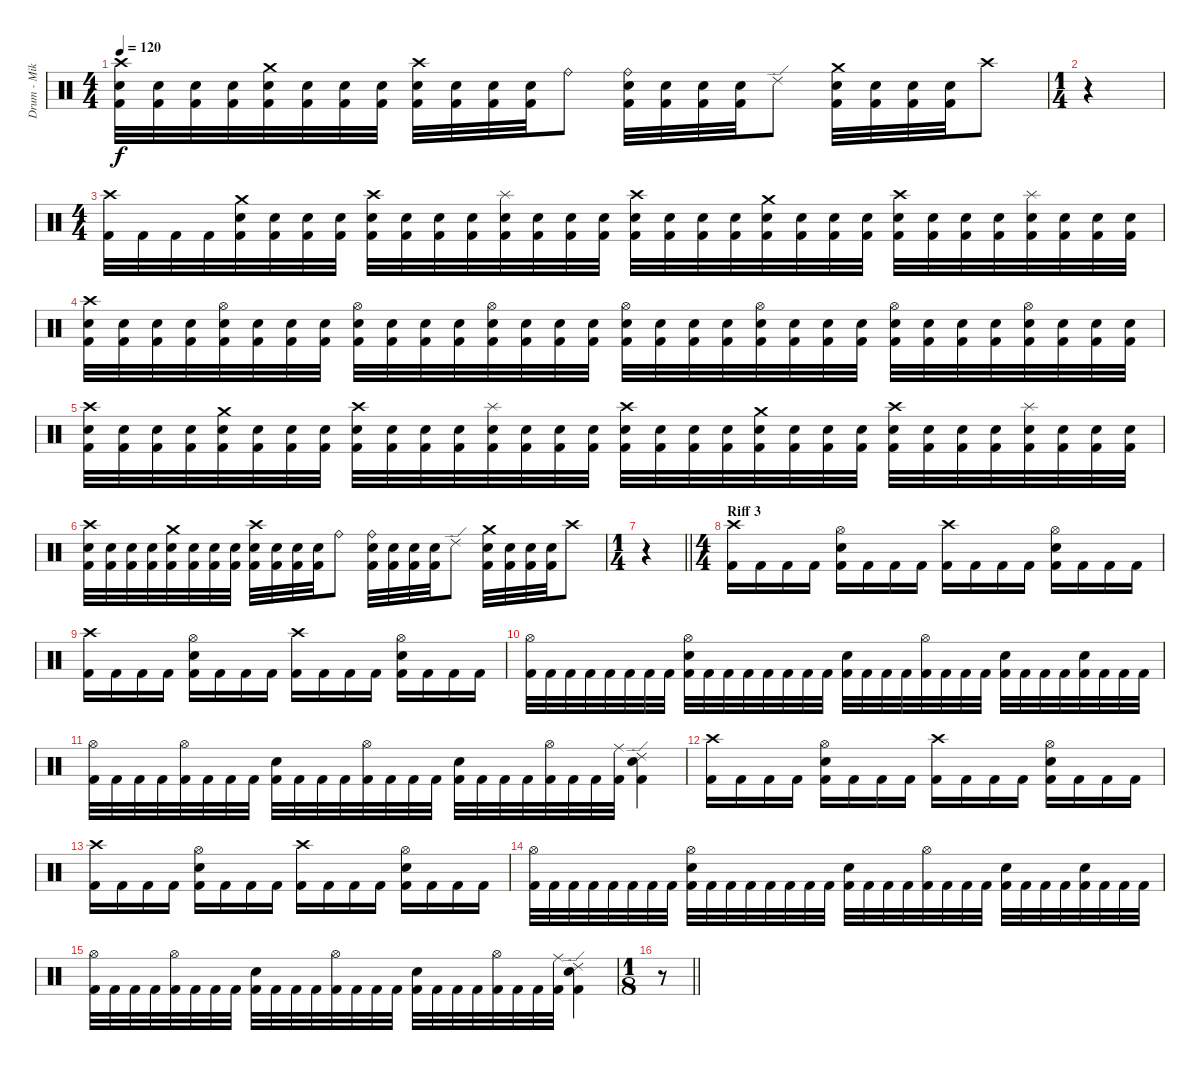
\track ("Drum - Mike Collins" "Drum - Mik") {instrument percussion}
\staff {score}
\articulation defaults
\ts (4 4)
\tempo 120
\clef neutral
\ks c
("Crash high (hit)" "Electric Snare (hit)" "Kick (hit) 2").32{dy f} ("Electric Snare (hit)" "Kick (hit) 2").32 ("Electric Snare (hit)" "Kick (hit) 2").32 ("Electric Snare (hit)" "Kick (hit) 2").32 ("Crash medium (hit)" "Electric Snare (hit)" "Kick (hit) 2").32 ("Electric Snare (hit)" "Kick (hit) 2").32 ("Electric Snare (hit)" "Kick (hit) 2").32 ("Electric Snare (hit)" "Kick (hit) 2").32 ("Crash high (hit)" "Electric Snare (hit)" "Kick (hit) 2").32 ("Electric Snare (hit)" "Kick (hit) 2").32 ("Electric Snare (hit)" "Kick (hit) 2").32 ("Electric Snare (hit)" "Kick (hit) 2").32 "Ride (bell)".8 ("Ride (bell)" "Electric Snare (hit)" "Kick (hit) 2").32 ("Electric Snare (hit)" "Kick (hit) 2").32 ("Electric Snare (hit)" "Kick (hit) 2").32 ("Electric Snare (hit)" "Kick (hit) 2").32 "Ride (edge) 2".8 ("Crash medium (hit)" "Electric Snare (hit)" "Kick (hit) 2").32 ("Electric Snare (hit)" "Kick (hit) 2").32 ("Electric Snare (hit)" "Kick (hit) 2").32 ("Electric Snare (hit)" "Kick (hit) 2").32 "Crash high (hit)".8 |
\ts (1 4)
r.4 |
\ts (4 4)
("Crash high (hit)" "Kick (hit) 2").32 "Kick (hit) 2".32 "Kick (hit) 2".32 "Kick (hit) 2".32 ("Crash medium (hit)" "Electric Snare (hit)" "Kick (hit) 2").32 ("Electric Snare (hit)" "Kick (hit) 2").32 ("Electric Snare (hit)" "Kick (hit) 2").32 ("Electric Snare (hit)" "Kick (hit) 2").32 ("Crash high (hit)" "Electric Snare (hit)" "Kick (hit) 2").32 ("Electric Snare (hit)" "Kick (hit) 2").32 ("Electric Snare (hit)" "Kick (hit) 2").32 ("Electric Snare (hit)" "Kick (hit) 2").32 ("Splash (hit)" "Electric Snare (hit)" "Kick (hit) 2").32 ("Electric Snare (hit)" "Kick (hit) 2").32 ("Electric Snare (hit)" "Kick (hit) 2").32 ("Electric Snare (hit)" "Kick (hit) 2").32 ("Crash high (hit)" "Electric Snare (hit)" "Kick (hit) 2").32 ("Electric Snare (hit)" "Kick (hit) 2").32 ("Electric Snare (hit)" "Kick (hit) 2").32 ("Electric Snare (hit)" "Kick (hit) 2").32 ("Crash medium (hit)" "Electric Snare (hit)" "Kick (hit) 2").32 ("Electric Snare (hit)" "Kick (hit) 2").32 ("Electric Snare (hit)" "Kick (hit) 2").32 ("Electric Snare (hit)" "Kick (hit) 2").32 ("Crash high (hit)" "Electric Snare (hit)" "Kick (hit) 2").32 ("Electric Snare (hit)" "Kick (hit) 2").32 ("Electric Snare (hit)" "Kick (hit) 2").32 ("Electric Snare (hit)" "Kick (hit) 2").32 ("Splash (hit)" "Electric Snare (hit)" "Kick (hit) 2").32 ("Electric Snare (hit)" "Kick (hit) 2").32 ("Electric Snare (hit)" "Kick (hit) 2").32 ("Electric Snare (hit)" "Kick (hit) 2").32 |
("Crash high (hit)" "Electric Snare (hit)" "Kick (hit) 2").32 ("Electric Snare (hit)" "Kick (hit) 2").32 ("Electric Snare (hit)" "Kick (hit) 2").32 ("Electric Snare (hit)" "Kick (hit) 2").32 ("Hi-Hat (open)" "Electric Snare (hit)" "Kick (hit) 2").32 ("Electric Snare (hit)" "Kick (hit) 2").32 ("Electric Snare (hit)" "Kick (hit) 2").32 ("Electric Snare (hit)" "Kick (hit) 2").32 ("Hi-Hat (open)" "Electric Snare (hit)" "Kick (hit) 2").32 ("Electric Snare (hit)" "Kick (hit) 2").32 ("Electric Snare (hit)" "Kick (hit) 2").32 ("Electric Snare (hit)" "Kick (hit) 2").32 ("Hi-Hat (open)" "Electric Snare (hit)" "Kick (hit) 2").32 ("Electric Snare (hit)" "Kick (hit) 2").32 ("Electric Snare (hit)" "Kick (hit) 2").32 ("Electric Snare (hit)" "Kick (hit) 2").32 ("Hi-Hat (open)" "Electric Snare (hit)" "Kick (hit) 2").32 ("Electric Snare (hit)" "Kick (hit) 2").32 ("Electric Snare (hit)" "Kick (hit) 2").32 ("Electric Snare (hit)" "Kick (hit) 2").32 ("Hi-Hat (open)" "Electric Snare (hit)" "Kick (hit) 2").32 ("Electric Snare (hit)" "Kick (hit) 2").32 ("Electric Snare (hit)" "Kick (hit) 2").32 ("Electric Snare (hit)" "Kick (hit) 2").32 ("Hi-Hat (open)" "Electric Snare (hit)" "Kick (hit) 2").32 ("Electric Snare (hit)" "Kick (hit) 2").32 ("Electric Snare (hit)" "Kick (hit) 2").32 ("Electric Snare (hit)" "Kick (hit) 2").32 ("Hi-Hat (open)" "Electric Snare (hit)" "Kick (hit) 2").32 ("Electric Snare (hit)" "Kick (hit) 2").32 ("Electric Snare (hit)" "Kick (hit) 2").32 ("Electric Snare (hit)" "Kick (hit) 2").32 |
("Crash high (hit)" "Electric Snare (hit)" "Kick (hit) 2").32 ("Electric Snare (hit)" "Kick (hit) 2").32 ("Electric Snare (hit)" "Kick (hit) 2").32 ("Electric Snare (hit)" "Kick (hit) 2").32 ("Crash medium (hit)" "Electric Snare (hit)" "Kick (hit) 2").32 ("Electric Snare (hit)" "Kick (hit) 2").32 ("Electric Snare (hit)" "Kick (hit) 2").32 ("Electric Snare (hit)" "Kick (hit) 2").32 ("Crash high (hit)" "Electric Snare (hit)" "Kick (hit) 2").32 ("Electric Snare (hit)" "Kick (hit) 2").32 ("Electric Snare (hit)" "Kick (hit) 2").32 ("Electric Snare (hit)" "Kick (hit) 2").32 ("Splash (hit)" "Electric Snare (hit)" "Kick (hit) 2").32 ("Electric Snare (hit)" "Kick (hit) 2").32 ("Electric Snare (hit)" "Kick (hit) 2").32 ("Electric Snare (hit)" "Kick (hit) 2").32 ("Crash high (hit)" "Electric Snare (hit)" "Kick (hit) 2").32 ("Electric Snare (hit)" "Kick (hit) 2").32 ("Electric Snare (hit)" "Kick (hit) 2").32 ("Electric Snare (hit)" "Kick (hit) 2").32 ("Crash medium (hit)" "Electric Snare (hit)" "Kick (hit) 2").32 ("Electric Snare (hit)" "Kick (hit) 2").32 ("Electric Snare (hit)" "Kick (hit) 2").32 ("Electric Snare (hit)" "Kick (hit) 2").32 ("Crash high (hit)" "Electric Snare (hit)" "Kick (hit) 2").32 ("Electric Snare (hit)" "Kick (hit) 2").32 ("Electric Snare (hit)" "Kick (hit) 2").32 ("Electric Snare (hit)" "Kick (hit) 2").32 ("Splash (hit)" "Electric Snare (hit)" "Kick (hit) 2").32 ("Electric Snare (hit)" "Kick (hit) 2").32 ("Electric Snare (hit)" "Kick (hit) 2").32 ("Electric Snare (hit)" "Kick (hit) 2").32 |
("Crash high (hit)" "Electric Snare (hit)" "Kick (hit) 2").32 ("Electric Snare (hit)" "Kick (hit) 2").32 ("Electric Snare (hit)" "Kick (hit) 2").32 ("Electric Snare (hit)" "Kick (hit) 2").32 ("Crash medium (hit)" "Electric Snare (hit)" "Kick (hit) 2").32 ("Electric Snare (hit)" "Kick (hit) 2").32 ("Electric Snare (hit)" "Kick (hit) 2").32 ("Electric Snare (hit)" "Kick (hit) 2").32 ("Crash high (hit)" "Electric Snare (hit)" "Kick (hit) 2").32 ("Electric Snare (hit)" "Kick (hit) 2").32 ("Electric Snare (hit)" "Kick (hit) 2").32 ("Electric Snare (hit)" "Kick (hit) 2").32 "Ride (bell)".8 ("Ride (bell)" "Electric Snare (hit)" "Kick (hit) 2").32 ("Electric Snare (hit)" "Kick (hit) 2").32 ("Electric Snare (hit)" "Kick (hit) 2").32 ("Electric Snare (hit)" "Kick (hit) 2").32 "Ride (edge) 2".8 ("Crash medium (hit)" "Electric Snare (hit)" "Kick (hit) 2").32 ("Electric Snare (hit)" "Kick (hit) 2").32 ("Electric Snare (hit)" "Kick (hit) 2").32 ("Electric Snare (hit)" "Kick (hit) 2").32 "Crash high (hit)".8 |
\ts (1 4)
\barLineRight lightlight
r.4 |
\ts (4 4)
\section ("" "Riff 3")
("Crash high (hit)" "Kick (hit) 2").16 "Kick (hit) 2".16 "Kick (hit) 2".16 "Kick (hit) 2".16 ("Hi-Hat (open)" "Electric Snare (hit)" "Kick (hit) 2").16 "Kick (hit) 2".16 "Kick (hit) 2".16 "Kick (hit) 2".16 ("Crash high (hit)" "Kick (hit) 2").16 "Kick (hit) 2".16 "Kick (hit) 2".16 "Kick (hit) 2".16 ("Hi-Hat (open)" "Electric Snare (hit)" "Kick (hit) 2").16 "Kick (hit) 2".16 "Kick (hit) 2".16 "Kick (hit) 2".16 |
("Crash high (hit)" "Kick (hit) 2").16 "Kick (hit) 2".16 "Kick (hit) 2".16 "Kick (hit) 2".16 ("Hi-Hat (open)" "Electric Snare (hit)" "Kick (hit) 2").16 "Kick (hit) 2".16 "Kick (hit) 2".16 "Kick (hit) 2".16 ("Crash high (hit)" "Kick (hit) 2").16 "Kick (hit) 2".16 "Kick (hit) 2".16 "Kick (hit) 2".16 ("Hi-Hat (open)" "Electric Snare (hit)" "Kick (hit) 2").16 "Kick (hit) 2".16 "Kick (hit) 2".16 "Kick (hit) 2".16 |
("Hi-Hat (open)" "Kick (hit) 2").32 "Kick (hit) 2".32 "Kick (hit) 2".32 "Kick (hit) 2".32 "Kick (hit) 2".32 "Kick (hit) 2".32 "Kick (hit) 2".32 "Kick (hit) 2".32 ("Hi-Hat (open)" "Electric Snare (hit)" "Kick (hit) 2").32 "Kick (hit) 2".32 "Kick (hit) 2".32 "Kick (hit) 2".32 "Kick (hit) 2".32 "Kick (hit) 2".32 "Kick (hit) 2".32 "Kick (hit) 2".32 ("Electric Snare (hit)" "Kick (hit) 2").32 "Kick (hit) 2".32 "Kick (hit) 2".32 "Kick (hit) 2".32 ("Hi-Hat (open)" "Kick (hit) 2").32 "Kick (hit) 2".32 "Kick (hit) 2".32 "Kick (hit) 2".32 ("Electric Snare (hit)" "Kick (hit) 2").32{beam Down} "Kick (hit) 2".32{beam Down} "Kick (hit) 2".32{beam Down} "Kick (hit) 2".32{beam Down} ("Electric Snare (hit)" "Kick (hit) 2").32{beam Down} "Kick (hit) 2".32{beam Down} "Kick (hit) 2".32{beam Down} "Kick (hit) 2".32{beam Down} |
("Hi-Hat (open)" "Kick (hit) 2").32 "Kick (hit) 2".32 "Kick (hit) 2".32 "Kick (hit) 2".32 ("Hi-Hat (open)" "Kick (hit) 2").32 "Kick (hit) 2".32 "Kick (hit) 2".32 "Kick (hit) 2".32 ("Electric Snare (hit)" "Kick (hit) 2").32 "Kick (hit) 2".32 "Kick (hit) 2".32 "Kick (hit) 2".32 ("Hi-Hat (open)" "Kick (hit) 2").32 "Kick (hit) 2".32 "Kick (hit) 2".32 "Kick (hit) 2".32 ("Electric Snare (hit)" "Kick (hit) 2").32 "Kick (hit) 2".32 "Kick (hit) 2".32 "Kick (hit) 2".32 ("Hi-Hat (open)" "Kick (hit) 2").32 "Kick (hit) 2".32 "Kick (hit) 2".32 ("Ride (middle)" "Kick (hit) 2").32 ("Ride (edge) 2" "Electric Snare (hit)" "Kick (hit) 2").4 |
("Crash high (hit)" "Kick (hit) 2").16 "Kick (hit) 2".16 "Kick (hit) 2".16 "Kick (hit) 2".16 ("Hi-Hat (open)" "Electric Snare (hit)" "Kick (hit) 2").16 "Kick (hit) 2".16 "Kick (hit) 2".16 "Kick (hit) 2".16 ("Crash high (hit)" "Kick (hit) 2").16 "Kick (hit) 2".16 "Kick (hit) 2".16 "Kick (hit) 2".16 ("Hi-Hat (open)" "Electric Snare (hit)" "Kick (hit) 2").16 "Kick (hit) 2".16 "Kick (hit) 2".16 "Kick (hit) 2".16 |
("Crash high (hit)" "Kick (hit) 2").16 "Kick (hit) 2".16 "Kick (hit) 2".16 "Kick (hit) 2".16 ("Hi-Hat (open)" "Electric Snare (hit)" "Kick (hit) 2").16 "Kick (hit) 2".16 "Kick (hit) 2".16 "Kick (hit) 2".16 ("Crash high (hit)" "Kick (hit) 2").16 "Kick (hit) 2".16 "Kick (hit) 2".16 "Kick (hit) 2".16 ("Hi-Hat (open)" "Electric Snare (hit)" "Kick (hit) 2").16 "Kick (hit) 2".16 "Kick (hit) 2".16 "Kick (hit) 2".16 |
("Hi-Hat (open)" "Kick (hit) 2").32 "Kick (hit) 2".32 "Kick (hit) 2".32 "Kick (hit) 2".32 "Kick (hit) 2".32 "Kick (hit) 2".32 "Kick (hit) 2".32 "Kick (hit) 2".32 ("Hi-Hat (open)" "Electric Snare (hit)" "Kick (hit) 2").32 "Kick (hit) 2".32 "Kick (hit) 2".32 "Kick (hit) 2".32 "Kick (hit) 2".32 "Kick (hit) 2".32 "Kick (hit) 2".32 "Kick (hit) 2".32 ("Electric Snare (hit)" "Kick (hit) 2").32 "Kick (hit) 2".32 "Kick (hit) 2".32 "Kick (hit) 2".32 ("Hi-Hat (open)" "Kick (hit) 2").32 "Kick (hit) 2".32 "Kick (hit) 2".32 "Kick (hit) 2".32 ("Electric Snare (hit)" "Kick (hit) 2").32{beam Down} "Kick (hit) 2".32{beam Down} "Kick (hit) 2".32{beam Down} "Kick (hit) 2".32{beam Down} ("Electric Snare (hit)" "Kick (hit) 2").32{beam Down} "Kick (hit) 2".32{beam Down} "Kick (hit) 2".32{beam Down} "Kick (hit) 2".32{beam Down} |
("Hi-Hat (open)" "Kick (hit) 2").32 "Kick (hit) 2".32 "Kick (hit) 2".32 "Kick (hit) 2".32 ("Hi-Hat (open)" "Kick (hit) 2").32 "Kick (hit) 2".32 "Kick (hit) 2".32 "Kick (hit) 2".32 ("Electric Snare (hit)" "Kick (hit) 2").32 "Kick (hit) 2".32 "Kick (hit) 2".32 "Kick (hit) 2".32 ("Hi-Hat (open)" "Kick (hit) 2").32 "Kick (hit) 2".32 "Kick (hit) 2".32 "Kick (hit) 2".32 ("Electric Snare (hit)" "Kick (hit) 2").32 "Kick (hit) 2".32 "Kick (hit) 2".32 "Kick (hit) 2".32 ("Hi-Hat (open)" "Kick (hit) 2").32 "Kick (hit) 2".32 "Kick (hit) 2".32 ("Ride (middle)" "Kick (hit) 2").32 ("Ride (edge) 2" "Electric Snare (hit)" "Kick (hit) 2").4 |
\ts (1 8)
\barLineRight lightlight
r.8
